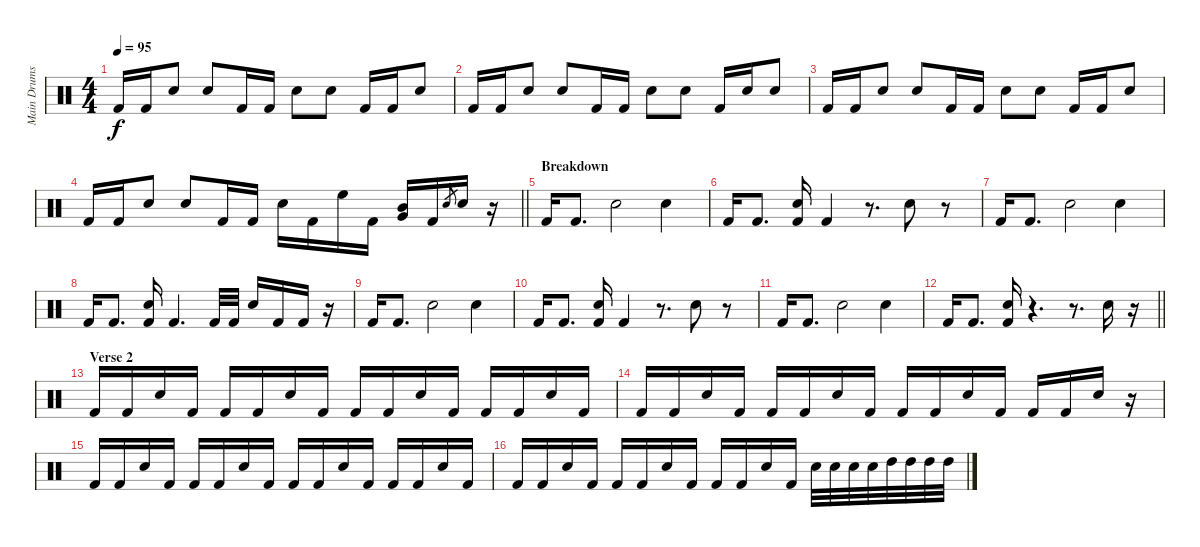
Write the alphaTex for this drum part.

\track ("Main Drums" "Main Drums") {instrument percussion}
\staff {score}
\articulation defaults
\ts (4 4)
\tempo 95
\clef neutral
\ks c "Kick (hit) 2".16{dy f} "Kick (hit) 2".16 "Snare (hit) 2".8 "Snare (hit) 2".8 "Kick (hit) 2".16 "Kick (hit) 2".16 "Snare (hit) 2".8 "Snare (hit) 2".8 "Kick (hit) 2".16 "Kick (hit) 2".16 "Snare (hit) 2".8
|
"Kick (hit) 2".16 "Kick (hit) 2".16 "Snare (hit) 2".8 "Snare (hit) 2".8 "Kick (hit) 2".16 "Kick (hit) 2".16 "Snare (hit) 2".8 "Snare (hit) 2".8 "Kick (hit) 2".16 "Snare (hit) 2".16 "Snare (hit) 2".8 |
"Kick (hit) 2".16 "Kick (hit) 2".16 "Snare (hit) 2".8 "Snare (hit) 2".8 "Kick (hit) 2".16 "Kick (hit) 2".16 "Snare (hit) 2".8 "Snare (hit) 2".8 "Kick (hit) 2".16 "Kick (hit) 2".16 "Snare (hit) 2".8 |
\barLineRight lightlight "Kick (hit) 2".16 "Kick (hit) 2".16 "Snare (hit) 2".8 "Snare (hit) 2".8 "Kick (hit) 2".16 "Kick (hit) 2".16 "Snare (hit) 2".16 "Kick (hit) 2".16 "High Floor Tom (hit)".16 "Kick (hit) 2".16
("Mid Tom (hit)" "Very Low Tom (hit)").16 "Kick (hit) 2".16 "Snare (hit) 2".8{gr} "Snare (hit) 2".16 r.16 |
\section ("" "Breakdown")
"Kick (hit) 2".16 "Kick (hit) 2".8{d} "Snare (hit) 2".2 "Snare (hit) 2".4 |
"Kick (hit) 2".16 "Kick (hit) 2".8{d} ("Snare (hit) 2" "Kick (hit) 2").16 "Kick (hit) 2".4 r.8{d} "Snare (hit) 2".8 r.8 |
"Kick (hit) 2".16 "Kick (hit) 2".8{d} "Snare (hit) 2".2 "Snare (hit) 2".4 |
"Kick (hit) 2".16 "Kick (hit) 2".8{d} ("Snare (hit) 2" "Kick (hit) 2").16 "Kick (hit) 2".4{d} "Kick (hit) 2".32 "Kick (hit) 2".32 "Snare (hit) 2".16 "Kick (hit) 2".16 "Kick (hit) 2".16 r.16 |
"Kick (hit) 2".16 "Kick (hit) 2".8{d} "Snare (hit) 2".2 "Snare (hit) 2".4 |
"Kick (hit) 2".16 "Kick (hit) 2".8{d} ("Snare (hit) 2" "Kick (hit) 2").16 "Kick (hit) 2".4 r.8{d} "Snare (hit) 2".8 r.8 |
"Kick (hit) 2".16 "Kick (hit) 2".8{d} "Snare (hit) 2".2 "Snare (hit) 2".4 |
\barLineRight lightlight "Kick (hit) 2".16 "Kick (hit) 2".8{d}
("Snare (hit) 2" "Kick (hit) 2").16 r.4{d} r.8{d} "Snare (hit) 2".16 r.16 |
\section ("" "Verse 2")
"Kick (hit) 2".16 "Kick (hit) 2".16 "Snare (hit) 2".16 "Kick (hit) 2".16 "Kick (hit) 2".16 "Kick (hit) 2".16 "Snare (hit) 2".16 "Kick (hit) 2".16 "Kick (hit) 2".16 "Kick (hit) 2".16 "Snare (hit) 2".16 "Kick (hit) 2".16 "Kick (hit) 2".16 "Kick (hit) 2".16 "Snare (hit) 2".16 "Kick (hit) 2".16 |
"Kick (hit) 2".16 "Kick (hit) 2".16 "Snare (hit) 2".16 "Kick (hit) 2".16 "Kick (hit) 2".16 "Kick (hit) 2".16 "Snare (hit) 2".16 "Kick (hit) 2".16 "Kick (hit) 2".16 "Kick (hit) 2".16 "Snare (hit) 2".16 "Kick (hit) 2".16 "Kick (hit) 2".16 "Kick (hit) 2".16 "Snare (hit) 2".16 r.16 |
"Kick (hit) 2".16 "Kick (hit) 2".16 "Snare (hit) 2".16 "Kick (hit) 2".16 "Kick (hit) 2".16 "Kick (hit) 2".16 "Snare (hit) 2".16 "Kick (hit) 2".16 "Kick (hit) 2".16 "Kick (hit) 2".16 "Snare (hit) 2".16 "Kick (hit) 2".16 "Kick (hit) 2".16 "Kick (hit) 2".16 "Snare (hit) 2".16 "Kick (hit) 2".16 |
"Kick (hit) 2".16 "Kick (hit) 2".16 "Snare (hit) 2".16 "Kick (hit) 2".16 "Kick (hit) 2".16 "Kick (hit) 2".16 "Snare (hit) 2".16 "Kick (hit) 2".16 "Kick (hit) 2".16 "Kick (hit) 2".16 "Snare (hit) 2".16 "Kick (hit) 2".16 "Snare (hit) 2".32 "Snare (hit) 2".32 "Snare (hit) 2".32 "Snare (hit) 2".32 "High Tom (hit)".32 "High Tom (hit)".32 "High Tom (hit)".32 "High Tom (hit)".32
